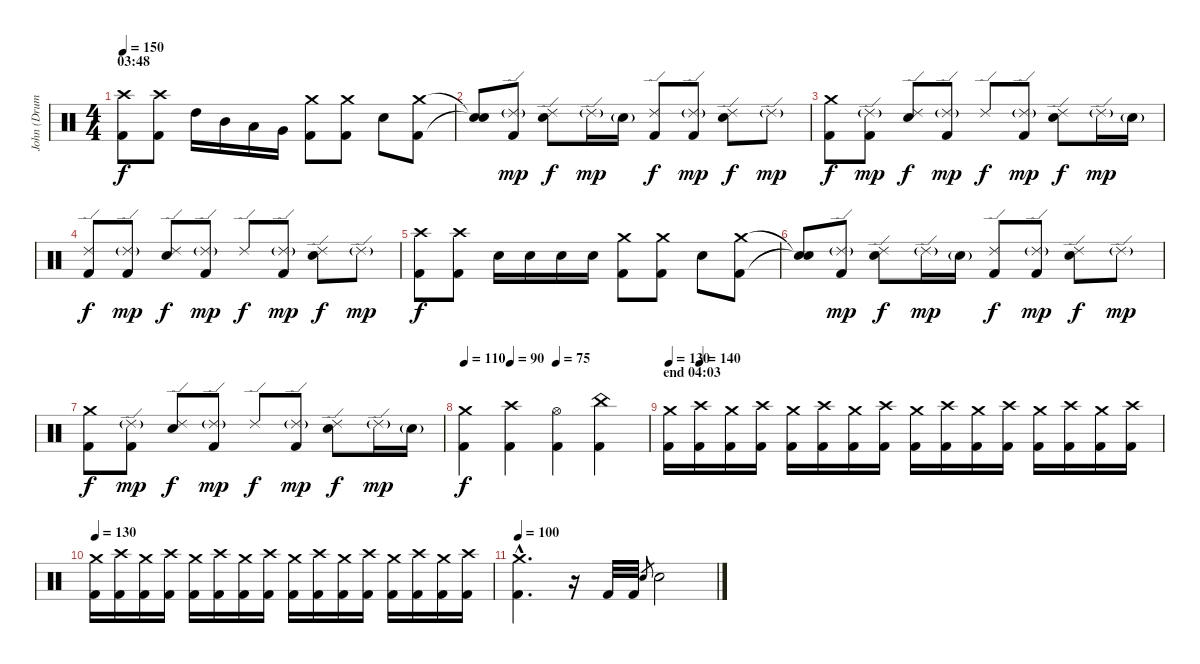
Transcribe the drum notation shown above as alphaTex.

\track ("John (Drums)" "John (Drum") {instrument percussion}
\staff {score}
\articulation defaults
\ts (4 4)
\section ("" "03:48")
\tempo 150
\clef neutral
\ks c
("Crash high (hit)" "Kick (hit) 2").8{dy f volume 13} ("Crash high (hit)" "Kick (hit) 2").8 "High Tom (hit)".16 "Mid Tom (hit)".16 "Low Tom (hit)".16 "Very Low Tom (hit)".16 ("Crash medium (hit)" "Kick (hit) 2").8 ("Crash medium (hit)" "Kick (hit) 2").8 "Snare (hit) 2".8 ("Crash medium (hit)" "Kick (hit) 2").8 |
("Snare (hit)"{t} "Snare (hit)"{t}).8 ("Ride (edge) 2"{g} "Kick (hit) 2").8{dy mp} ("Ride (edge) 2" "Snare (hit) 2").8{dy f} "Ride (edge) 2"{g}.16{dy mp} "Snare (hit) 2"{g}.16 ("Ride (edge) 2" "Kick (hit) 2").8{dy f} ("Ride (edge) 2"{g} "Kick (hit) 2").8{dy mp} ("Ride (edge) 2" "Snare (hit) 2").8{dy f} "Ride (edge) 2"{g}.8{dy mp} |
("Crash medium (hit)" "Kick (hit) 2").8{dy f} ("Ride (edge) 2"{g} "Kick (hit) 2").8{dy mp} ("Ride (edge) 2" "Snare (hit) 2").8{dy f} ("Ride (edge) 2"{g} "Kick (hit) 2").8{dy mp} "Ride (edge) 2".8{dy f} ("Ride (edge) 2"{g} "Kick (hit) 2").8{dy mp} ("Ride (edge) 2" "Snare (hit) 2").8{dy f} "Ride (edge) 2"{g}.16{dy mp} "Snare (hit) 2"{g}.16 |
("Ride (edge) 2" "Kick (hit) 2").8{dy f} ("Ride (edge) 2"{g} "Kick (hit) 2").8{dy mp} ("Ride (edge) 2" "Snare (hit) 2").8{dy f} ("Ride (edge) 2"{g} "Kick (hit) 2").8{dy mp} "Ride (edge) 2".8{dy f} ("Ride (edge) 2"{g} "Kick (hit) 2").8{dy mp} ("Ride (edge) 2" "Snare (hit) 2").8{dy f} "Ride (edge) 2"{g}.8{dy mp} |
("Crash high (hit)" "Kick (hit) 2").8{dy f} ("Crash high (hit)" "Kick (hit) 2").8 "Snare (hit) 2".16 "Snare (hit) 2".16 "Snare (hit) 2".16 "Snare (hit) 2".16 ("Crash medium (hit)" "Kick (hit) 2").8 ("Crash medium (hit)" "Kick (hit) 2").8 "Snare (hit) 2".8 ("Crash medium (hit)" "Kick (hit) 2").8 |
("Snare (hit)"{t} "Snare (hit)"{t}).8 ("Ride (edge) 2"{g} "Kick (hit) 2").8{dy mp} ("Ride (edge) 2" "Snare (hit) 2").8{dy f} "Ride (edge) 2"{g}.16{dy mp} "Snare (hit) 2"{g}.16 ("Ride (edge) 2" "Kick (hit) 2").8{dy f} ("Ride (edge) 2"{g} "Kick (hit) 2").8{dy mp} ("Ride (edge) 2" "Snare (hit) 2").8{dy f} "Ride (edge) 2"{g}.8{dy mp} |
("Crash medium (hit)" "Kick (hit) 2").8{dy f} ("Ride (edge) 2"{g} "Kick (hit) 2").8{dy mp} ("Ride (edge) 2" "Snare (hit) 2").8{dy f} ("Ride (edge) 2"{g} "Kick (hit) 2").8{dy mp} "Ride (edge) 2".8{dy f} ("Ride (edge) 2"{g} "Kick (hit) 2").8{dy mp} ("Ride (edge) 2" "Snare (hit) 2").8{dy f} "Ride (edge) 2"{g}.16{dy mp} "Snare (hit) 2"{g}.16 |
\tempo 110
\tempo (90 0.25)
\tempo (75 0.5)
("Crash medium (hit)" "Kick (hit) 2").4{dy f} ("Crash high (hit)" "Kick (hit) 2").4 ("Hi-Hat (open)" "Kick (hit) 2").4 ("China (hit)" "Kick (hit) 2").4 |
\section ("" "end 04:03")
\tempo 130
\tempo (140 0.0625)
("Crash medium (hit)" "Kick (hit) 2").16 ("Crash high (hit)" "Kick (hit) 2").16 ("Crash medium (hit)" "Kick (hit) 2").16 ("Crash high (hit)" "Kick (hit) 2").16 ("Crash medium (hit)" "Kick (hit) 2").16 ("Crash high (hit)" "Kick (hit) 2").16 ("Crash medium (hit)" "Kick (hit) 2").16 ("Crash high (hit)" "Kick (hit) 2").16 ("Crash medium (hit)" "Kick (hit) 2").16 ("Crash high (hit)" "Kick (hit) 2").16 ("Crash medium (hit)" "Kick (hit) 2").16 ("Crash high (hit)" "Kick (hit) 2").16 ("Crash medium (hit)" "Kick (hit) 2").16 ("Crash high (hit)" "Kick (hit) 2").16 ("Crash medium (hit)" "Kick (hit) 2").16 ("Crash high (hit)" "Kick (hit) 2").16 |
\tempo 130
("Crash medium (hit)" "Kick (hit) 2").16 ("Crash high (hit)" "Kick (hit) 2").16 ("Crash medium (hit)" "Kick (hit) 2").16 ("Crash high (hit)" "Kick (hit) 2").16 ("Crash medium (hit)" "Kick (hit) 2").16 ("Crash high (hit)" "Kick (hit) 2").16 ("Crash medium (hit)" "Kick (hit) 2").16 ("Crash high (hit)" "Kick (hit) 2").16 ("Crash medium (hit)" "Kick (hit) 2").16 ("Crash high (hit)" "Kick (hit) 2").16 ("Crash medium (hit)" "Kick (hit) 2").16 ("Crash high (hit)" "Kick (hit) 2").16 ("Crash medium (hit)" "Kick (hit) 2").16 ("Crash high (hit)" "Kick (hit) 2").16 ("Crash medium (hit)" "Kick (hit) 2").16 ("Crash high (hit)" "Kick (hit) 2").16 |
\tempo 100
("Crash medium (hit)"{hac} "Kick (hit) 2"{hac}).4{d} r.16 "Kick (hit) 2".32 "Kick (hit) 2".32 "Snare (hit) 2".8{gr} "Snare (hit) 2".2
